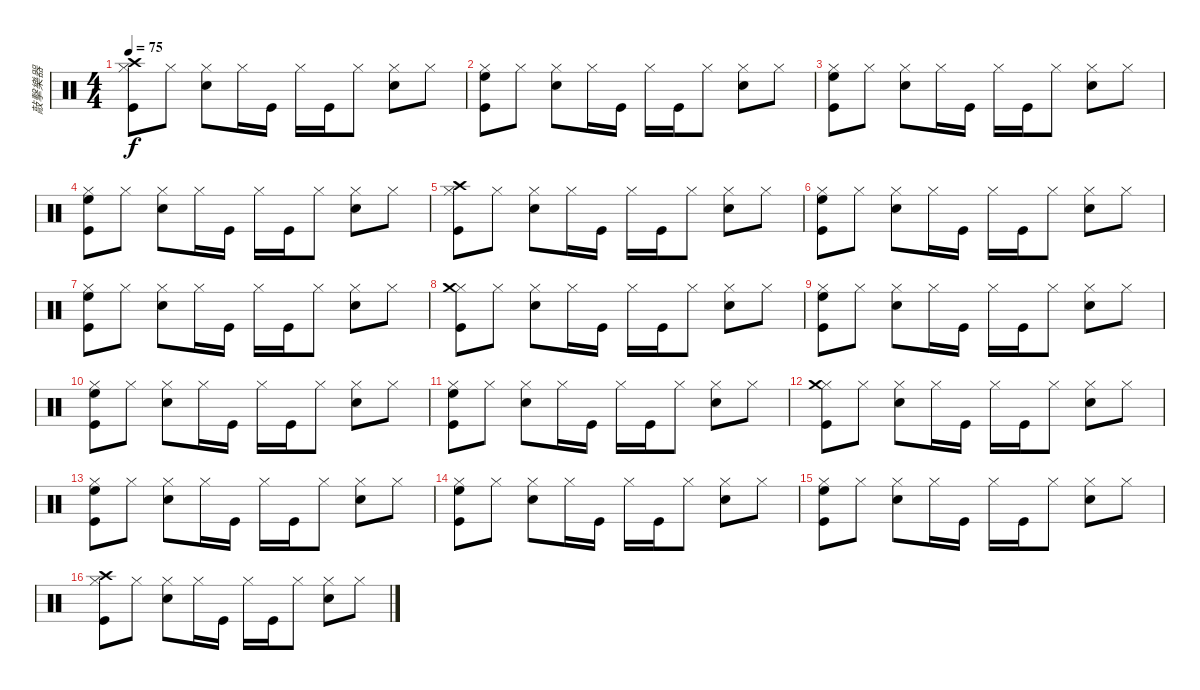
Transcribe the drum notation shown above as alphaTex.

\track ("敲擊樂器" "敲擊樂器") {instrument percussion}
\staff {score}
\articulation defaults
\ts (4 4)
\tempo 75
\clef neutral
\ks c
("Hi-Hat (closed)" "Crash high (hit)" "Kick (hit)").8{dy f} "Hi-Hat (closed)".8 ("Hi-Hat (closed)" "Snare (hit) 2").8 "Hi-Hat (closed)".16 "Kick (hit)".16 "Hi-Hat (closed)".16 "Kick (hit)".16 "Hi-Hat (closed)".8 ("Hi-Hat (closed)" "Snare (hit) 2").8 "Hi-Hat (closed)".8 |
("Hi-Hat (closed)" "High Floor Tom (hit)" "Kick (hit)").8 "Hi-Hat (closed)".8 ("Hi-Hat (closed)" "Snare (hit) 2").8 "Hi-Hat (closed)".16 "Kick (hit)".16 "Hi-Hat (closed)".16 "Kick (hit)".16 "Hi-Hat (closed)".8 ("Hi-Hat (closed)" "Snare (hit) 2").8 "Hi-Hat (closed)".8 |
("Hi-Hat (closed)" "High Floor Tom (hit)" "Kick (hit)").8 "Hi-Hat (closed)".8 ("Hi-Hat (closed)" "Snare (hit) 2").8 "Hi-Hat (closed)".16 "Kick (hit)".16 "Hi-Hat (closed)".16 "Kick (hit)".16 "Hi-Hat (closed)".8 ("Hi-Hat (closed)" "Snare (hit) 2").8 "Hi-Hat (closed)".8 |
("Hi-Hat (closed)" "High Floor Tom (hit)" "Kick (hit)").8 "Hi-Hat (closed)".8 ("Hi-Hat (closed)" "Snare (hit) 2").8 "Hi-Hat (closed)".16 "Kick (hit)".16 "Hi-Hat (closed)".16 "Kick (hit)".16 "Hi-Hat (closed)".8 ("Hi-Hat (closed)" "Snare (hit) 2").8 "Hi-Hat (closed)".8 |
("Hi-Hat (closed)" "Crash high (hit)" "Kick (hit)").8 "Hi-Hat (closed)".8 ("Hi-Hat (closed)" "Snare (hit) 2").8 "Hi-Hat (closed)".16 "Kick (hit)".16 "Hi-Hat (closed)".16 "Kick (hit)".16 "Hi-Hat (closed)".8 ("Hi-Hat (closed)" "Snare (hit) 2").8 "Hi-Hat (closed)".8 |
("Hi-Hat (closed)" "High Floor Tom (hit)" "Kick (hit)").8 "Hi-Hat (closed)".8 ("Hi-Hat (closed)" "Snare (hit) 2").8 "Hi-Hat (closed)".16 "Kick (hit)".16 "Hi-Hat (closed)".16 "Kick (hit)".16 "Hi-Hat (closed)".8 ("Hi-Hat (closed)" "Snare (hit) 2").8 "Hi-Hat (closed)".8 |
("Hi-Hat (closed)" "High Floor Tom (hit)" "Kick (hit)").8 "Hi-Hat (closed)".8 ("Hi-Hat (closed)" "Snare (hit) 2").8 "Hi-Hat (closed)".16 "Kick (hit)".16 "Hi-Hat (closed)".16 "Kick (hit)".16 "Hi-Hat (closed)".8 ("Hi-Hat (closed)" "Snare (hit) 2").8 "Hi-Hat (closed)".8 |
("Hi-Hat (closed)" "Crash medium (hit)" "Kick (hit)").8 "Hi-Hat (closed)".8 ("Hi-Hat (closed)" "Snare (hit) 2").8 "Hi-Hat (closed)".16 "Kick (hit)".16 "Hi-Hat (closed)".16 "Kick (hit)".16 "Hi-Hat (closed)".8 ("Hi-Hat (closed)" "Snare (hit) 2").8 "Hi-Hat (closed)".8 |
("Hi-Hat (closed)" "High Floor Tom (hit)" "Kick (hit)").8 "Hi-Hat (closed)".8 ("Hi-Hat (closed)" "Snare (hit) 2").8 "Hi-Hat (closed)".16 "Kick (hit)".16 "Hi-Hat (closed)".16 "Kick (hit)".16 "Hi-Hat (closed)".8 ("Hi-Hat (closed)" "Snare (hit) 2").8 "Hi-Hat (closed)".8 |
("Hi-Hat (closed)" "High Floor Tom (hit)" "Kick (hit)").8 "Hi-Hat (closed)".8 ("Hi-Hat (closed)" "Snare (hit) 2").8 "Hi-Hat (closed)".16 "Kick (hit)".16 "Hi-Hat (closed)".16 "Kick (hit)".16 "Hi-Hat (closed)".8 ("Hi-Hat (closed)" "Snare (hit) 2").8 "Hi-Hat (closed)".8 |
("Hi-Hat (closed)" "High Floor Tom (hit)" "Kick (hit)").8 "Hi-Hat (closed)".8 ("Hi-Hat (closed)" "Snare (hit) 2").8 "Hi-Hat (closed)".16 "Kick (hit)".16 "Hi-Hat (closed)".16 "Kick (hit)".16 "Hi-Hat (closed)".8 ("Hi-Hat (closed)" "Snare (hit) 2").8 "Hi-Hat (closed)".8 |
("Hi-Hat (closed)" "Crash medium (hit)" "Kick (hit)").8 "Hi-Hat (closed)".8 ("Hi-Hat (closed)" "Snare (hit) 2").8 "Hi-Hat (closed)".16 "Kick (hit)".16 "Hi-Hat (closed)".16 "Kick (hit)".16 "Hi-Hat (closed)".8 ("Hi-Hat (closed)" "Snare (hit) 2").8 "Hi-Hat (closed)".8 |
("Hi-Hat (closed)" "High Floor Tom (hit)" "Kick (hit)").8 "Hi-Hat (closed)".8 ("Hi-Hat (closed)" "Snare (hit) 2").8 "Hi-Hat (closed)".16 "Kick (hit)".16 "Hi-Hat (closed)".16 "Kick (hit)".16 "Hi-Hat (closed)".8 ("Hi-Hat (closed)" "Snare (hit) 2").8 "Hi-Hat (closed)".8 |
("Hi-Hat (closed)" "High Floor Tom (hit)" "Kick (hit)").8 "Hi-Hat (closed)".8 ("Hi-Hat (closed)" "Snare (hit) 2").8 "Hi-Hat (closed)".16 "Kick (hit)".16 "Hi-Hat (closed)".16 "Kick (hit)".16 "Hi-Hat (closed)".8 ("Hi-Hat (closed)" "Snare (hit) 2").8 "Hi-Hat (closed)".8 |
("Hi-Hat (closed)" "High Floor Tom (hit)" "Kick (hit)").8 "Hi-Hat (closed)".8 ("Hi-Hat (closed)" "Snare (hit) 2").8 "Hi-Hat (closed)".16 "Kick (hit)".16 "Hi-Hat (closed)".16 "Kick (hit)".16 "Hi-Hat (closed)".8 ("Hi-Hat (closed)" "Snare (hit) 2").8 "Hi-Hat (closed)".8 |
("Hi-Hat (closed)" "Crash high (hit)" "Kick (hit)").8 "Hi-Hat (closed)".8 ("Hi-Hat (closed)" "Snare (hit) 2").8 "Hi-Hat (closed)".16 "Kick (hit)".16 "Hi-Hat (closed)".16 "Kick (hit)".16 "Hi-Hat (closed)".8 ("Hi-Hat (closed)" "Snare (hit) 2").8 "Hi-Hat (closed)".8
